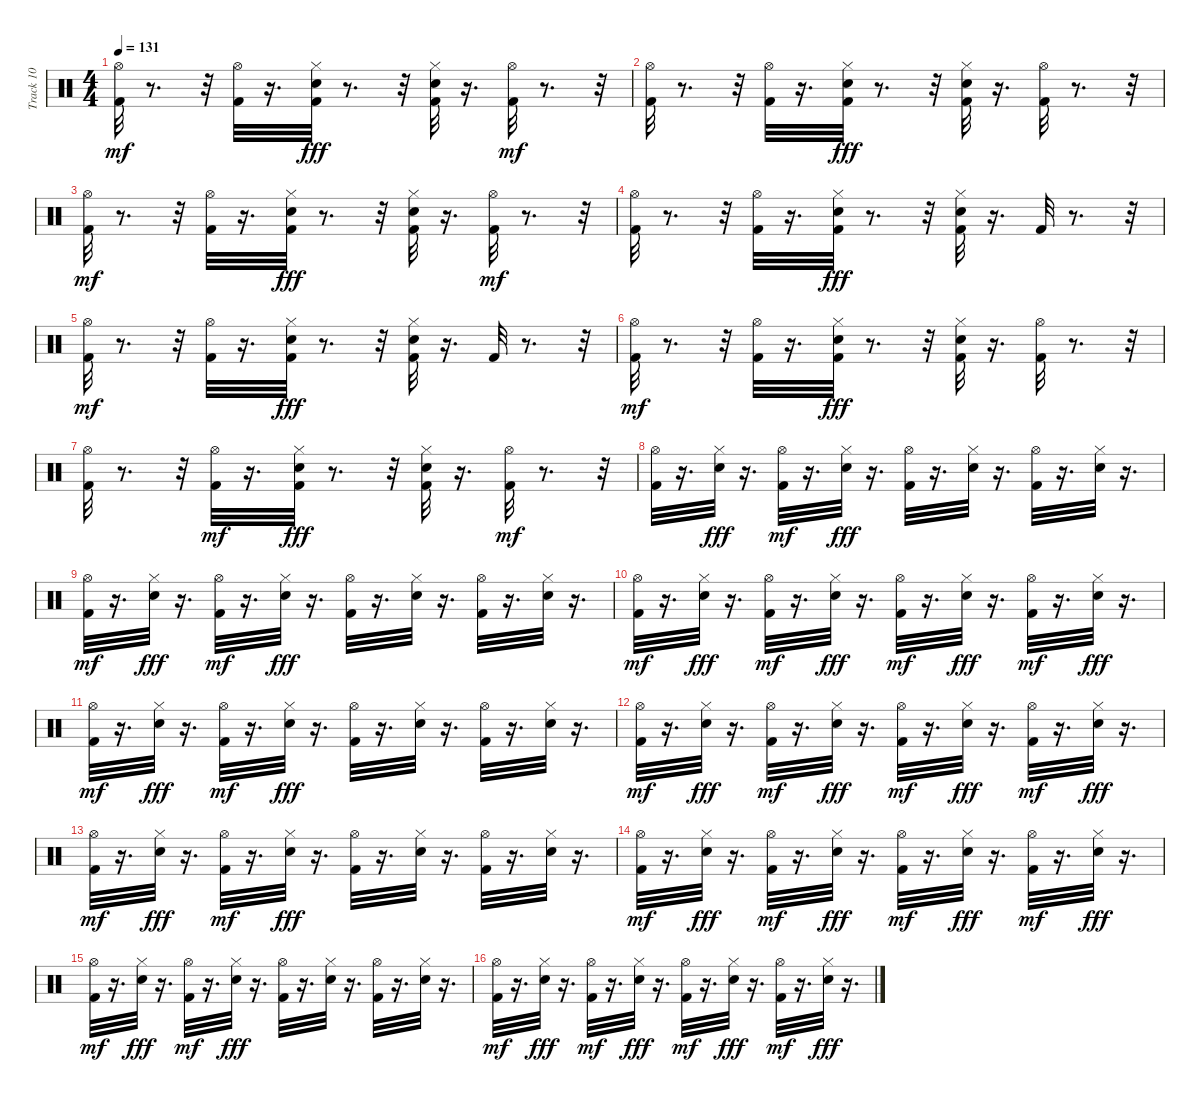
\track ("Track 10" "Track 10") {instrument percussion}
\staff {score}
\articulation defaults
\ts (4 4)
\tempo 131
\clef neutral
\ks c
("Kick (hit) 2" "Hi-Hat (open)").32{dy mf} r.8{d} r.32 ("Kick (hit) 2" "Hi-Hat (open)").32 r.16{d} ("Kick (hit) 2" "Snare (hit) 2" "Hi-Hat (closed)").32{dy fff} r.8{d} r.32 ("Kick (hit) 2" "Snare (hit) 2" "Hi-Hat (closed)").32 r.16{d} ("Kick (hit) 2" "Hi-Hat (open)").32{dy mf} r.8{d} r.32 |
("Kick (hit) 2" "Hi-Hat (open)").32 r.8{d} r.32 ("Kick (hit) 2" "Hi-Hat (open)").32 r.16{d} ("Kick (hit) 2" "Snare (hit) 2" "Hi-Hat (closed)").32{dy fff} r.8{d} r.32 ("Kick (hit) 2" "Snare (hit) 2" "Hi-Hat (closed)").32 r.16{d} ("Kick (hit) 2" "Hi-Hat (open)").32 r.8{d} r.32 |
("Kick (hit) 2" "Hi-Hat (open)").32{dy mf} r.8{d} r.32 ("Kick (hit) 2" "Hi-Hat (open)").32 r.16{d} ("Kick (hit) 2" "Snare (hit) 2" "Hi-Hat (closed)").32{dy fff} r.8{d} r.32 ("Kick (hit) 2" "Snare (hit) 2" "Hi-Hat (closed)").32 r.16{d} ("Kick (hit) 2" "Hi-Hat (open)").32{dy mf} r.8{d} r.32 |
("Kick (hit) 2" "Hi-Hat (open)").32 r.8{d} r.32 ("Kick (hit) 2" "Hi-Hat (open)").32 r.16{d} ("Kick (hit) 2" "Snare (hit) 2" "Hi-Hat (closed)").32{dy fff} r.8{d} r.32 ("Kick (hit) 2" "Snare (hit) 2" "Hi-Hat (closed)").32 r.16{d} "Kick (hit) 2".32 r.8{d} r.32 |
("Kick (hit) 2" "Hi-Hat (open)").32{dy mf} r.8{d} r.32 ("Kick (hit) 2" "Hi-Hat (open)").32 r.16{d} ("Kick (hit) 2" "Snare (hit) 2" "Hi-Hat (closed)").32{dy fff} r.8{d} r.32 ("Kick (hit) 2" "Snare (hit) 2" "Hi-Hat (closed)").32 r.16{d} "Kick (hit) 2".32 r.8{d} r.32 |
("Kick (hit) 2" "Hi-Hat (open)").32{dy mf} r.8{d} r.32 ("Kick (hit) 2" "Hi-Hat (open)").32 r.16{d} ("Kick (hit) 2" "Snare (hit) 2" "Hi-Hat (closed)").32{dy fff} r.8{d} r.32 ("Kick (hit) 2" "Snare (hit) 2" "Hi-Hat (closed)").32 r.16{d} ("Kick (hit) 2" "Hi-Hat (open)").32 r.8{d} r.32 |
("Kick (hit) 2" "Hi-Hat (open)").32 r.8{d} r.32 ("Kick (hit) 2" "Hi-Hat (open)").32{dy mf} r.16{d} ("Kick (hit) 2" "Snare (hit) 2" "Hi-Hat (closed)").32{dy fff} r.8{d} r.32 ("Kick (hit) 2" "Snare (hit) 2" "Hi-Hat (closed)").32 r.16{d} ("Kick (hit) 2" "Hi-Hat (open)").32{dy mf} r.8{d} r.32 |
("Kick (hit) 2" "Hi-Hat (open)").32 r.16{d} ("Snare (hit) 2" "Hi-Hat (closed)").32{dy fff} r.16{d} ("Kick (hit) 2" "Hi-Hat (open)").32{dy mf} r.16{d} ("Snare (hit) 2" "Hi-Hat (closed)").32{dy fff} r.16{d} ("Kick (hit) 2" "Hi-Hat (open)").32 r.16{d} ("Snare (hit) 2" "Hi-Hat (closed)").32 r.16{d} ("Kick (hit) 2" "Hi-Hat (open)").32 r.16{d} ("Snare (hit) 2" "Hi-Hat (closed)").32 r.16{d} |
("Kick (hit) 2" "Hi-Hat (open)").32{dy mf} r.16{d} ("Snare (hit) 2" "Hi-Hat (closed)").32{dy fff} r.16{d} ("Kick (hit) 2" "Hi-Hat (open)").32{dy mf} r.16{d} ("Snare (hit) 2" "Hi-Hat (closed)").32{dy fff} r.16{d} ("Kick (hit) 2" "Hi-Hat (open)").32 r.16{d} ("Snare (hit) 2" "Hi-Hat (closed)").32 r.16{d} ("Kick (hit) 2" "Hi-Hat (open)").32 r.16{d} ("Snare (hit) 2" "Hi-Hat (closed)").32 r.16{d} |
("Kick (hit) 2" "Hi-Hat (open)").32{dy mf} r.16{d} ("Snare (hit) 2" "Hi-Hat (closed)").32{dy fff} r.16{d} ("Kick (hit) 2" "Hi-Hat (open)").32{dy mf} r.16{d} ("Snare (hit) 2" "Hi-Hat (closed)").32{dy fff} r.16{d} ("Kick (hit) 2" "Hi-Hat (open)").32{dy mf} r.16{d} ("Snare (hit) 2" "Hi-Hat (closed)").32{dy fff} r.16{d} ("Kick (hit) 2" "Hi-Hat (open)").32{dy mf} r.16{d} ("Snare (hit) 2" "Hi-Hat (closed)").32{dy fff} r.16{d} |
("Kick (hit) 2" "Hi-Hat (open)").32{dy mf} r.16{d} ("Snare (hit) 2" "Hi-Hat (closed)").32{dy fff} r.16{d} ("Kick (hit) 2" "Hi-Hat (open)").32{dy mf} r.16{d} ("Snare (hit) 2" "Hi-Hat (closed)").32{dy fff} r.16{d} ("Kick (hit) 2" "Hi-Hat (open)").32 r.16{d} ("Snare (hit) 2" "Hi-Hat (closed)").32 r.16{d} ("Kick (hit) 2" "Hi-Hat (open)").32 r.16{d} ("Snare (hit) 2" "Hi-Hat (closed)").32 r.16{d} |
("Kick (hit) 2" "Hi-Hat (open)").32{dy mf} r.16{d} ("Snare (hit) 2" "Hi-Hat (closed)").32{dy fff} r.16{d} ("Kick (hit) 2" "Hi-Hat (open)").32{dy mf} r.16{d} ("Snare (hit) 2" "Hi-Hat (closed)").32{dy fff} r.16{d} ("Kick (hit) 2" "Hi-Hat (open)").32{dy mf} r.16{d} ("Snare (hit) 2" "Hi-Hat (closed)").32{dy fff} r.16{d} ("Kick (hit) 2" "Hi-Hat (open)").32{dy mf} r.16{d} ("Snare (hit) 2" "Hi-Hat (closed)").32{dy fff} r.16{d} |
("Kick (hit) 2" "Hi-Hat (open)").32{dy mf} r.16{d} ("Snare (hit) 2" "Hi-Hat (closed)").32{dy fff} r.16{d} ("Kick (hit) 2" "Hi-Hat (open)").32{dy mf} r.16{d} ("Snare (hit) 2" "Hi-Hat (closed)").32{dy fff} r.16{d} ("Kick (hit) 2" "Hi-Hat (open)").32 r.16{d} ("Snare (hit) 2" "Hi-Hat (closed)").32 r.16{d} ("Kick (hit) 2" "Hi-Hat (open)").32 r.16{d} ("Snare (hit) 2" "Hi-Hat (closed)").32 r.16{d} |
("Kick (hit) 2" "Hi-Hat (open)").32{dy mf} r.16{d} ("Snare (hit) 2" "Hi-Hat (closed)").32{dy fff} r.16{d} ("Kick (hit) 2" "Hi-Hat (open)").32{dy mf} r.16{d} ("Snare (hit) 2" "Hi-Hat (closed)").32{dy fff} r.16{d} ("Kick (hit) 2" "Hi-Hat (open)").32{dy mf} r.16{d} ("Snare (hit) 2" "Hi-Hat (closed)").32{dy fff} r.16{d} ("Kick (hit) 2" "Hi-Hat (open)").32{dy mf} r.16{d} ("Snare (hit) 2" "Hi-Hat (closed)").32{dy fff} r.16{d} |
("Kick (hit) 2" "Hi-Hat (open)").32{dy mf} r.16{d} ("Snare (hit) 2" "Hi-Hat (closed)").32{dy fff} r.16{d} ("Kick (hit) 2" "Hi-Hat (open)").32{dy mf} r.16{d} ("Snare (hit) 2" "Hi-Hat (closed)").32{dy fff} r.16{d} ("Kick (hit) 2" "Hi-Hat (open)").32 r.16{d} ("Snare (hit) 2" "Hi-Hat (closed)").32 r.16{d} ("Kick (hit) 2" "Hi-Hat (open)").32 r.16{d} ("Snare (hit) 2" "Hi-Hat (closed)").32 r.16{d} |
("Kick (hit) 2" "Hi-Hat (open)").32{dy mf} r.16{d} ("Snare (hit) 2" "Hi-Hat (closed)").32{dy fff} r.16{d} ("Kick (hit) 2" "Hi-Hat (open)").32{dy mf} r.16{d} ("Snare (hit) 2" "Hi-Hat (closed)").32{dy fff} r.16{d} ("Kick (hit) 2" "Hi-Hat (open)").32{dy mf} r.16{d} ("Snare (hit) 2" "Hi-Hat (closed)").32{dy fff} r.16{d} ("Kick (hit) 2" "Hi-Hat (open)").32{dy mf} r.16{d} ("Snare (hit) 2" "Hi-Hat (closed)").32{dy fff} r.16{d}
